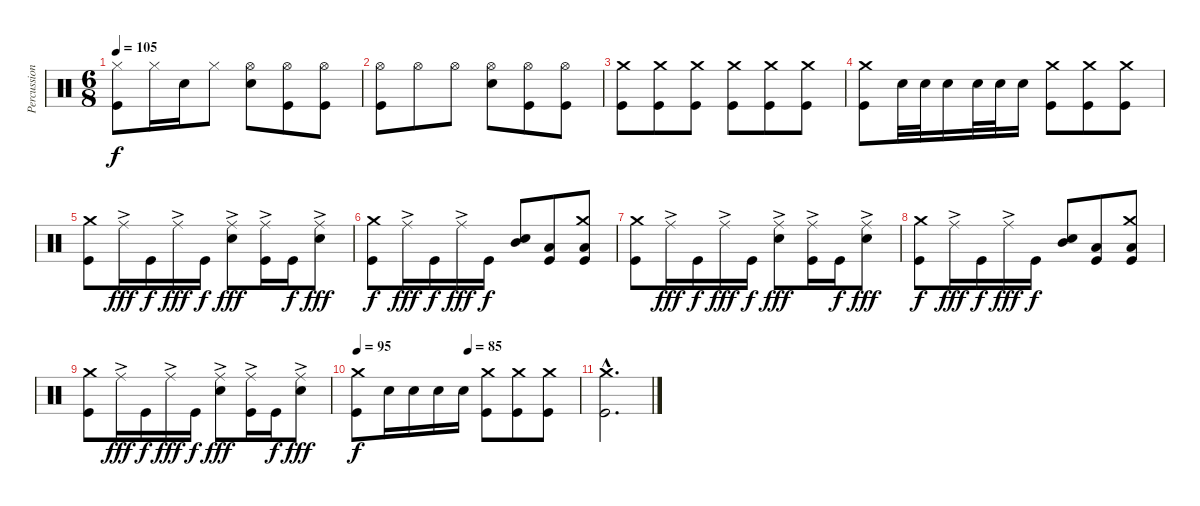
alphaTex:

\track ("Percussion" "Percussion") {instrument percussion}
\staff {score}
\articulation defaults
\ts (6 8)
\tempo 105
\clef neutral
\ks c
("Hi-Hat (closed)" "Kick (hit)").8{dy f} "Hi-Hat (closed)".16 "Electric Snare (hit)".16 "Hi-Hat (closed)".8 ("Hi-Hat (open)" "Electric Snare (hit)").8 ("Hi-Hat (open)" "Kick (hit)").8 ("Hi-Hat (open)" "Kick (hit)").8 |
("Hi-Hat (open)" "Kick (hit)").8 "Hi-Hat (open)".8 "Hi-Hat (open)".8 ("Hi-Hat (open)" "Electric Snare (hit)").8 ("Hi-Hat (open)" "Kick (hit)").8 ("Hi-Hat (open)" "Kick (hit)").8 |
("Crash medium (hit)" "Kick (hit)").8 ("Crash medium (hit)" "Kick (hit)").8 ("Crash medium (hit)" "Kick (hit)").8 ("Crash medium (hit)" "Kick (hit)").8 ("Crash medium (hit)" "Kick (hit)").8 ("Crash medium (hit)" "Kick (hit)").8 |
("Crash medium (hit)" "Kick (hit)").8 "Electric Snare (hit)".32 "Electric Snare (hit)".32 "Electric Snare (hit)".16 "Electric Snare (hit)".32 "Electric Snare (hit)".32 "Electric Snare (hit)".16 ("Crash medium (hit)" "Kick (hit)").8 ("Crash medium (hit)" "Kick (hit)").8 ("Crash medium (hit)" "Kick (hit)").8 |
("Crash medium (hit)" "Kick (hit)").8 "Ride (middle)"{ac}.16{dy fff} "Kick (hit)".16{dy f} "Ride (middle)"{ac}.16{dy fff} "Kick (hit)".16{dy f} ("Ride (middle)"{ac} "Electric Snare (hit)").8{dy fff} ("Ride (middle)"{ac} "Kick (hit)").16 "Kick (hit)".16{dy f} ("Ride (middle)"{ac} "Electric Snare (hit)").8{dy fff} |
("Crash medium (hit)" "Kick (hit)").8{dy f} "Ride (middle)"{ac}.16{dy fff} "Kick (hit)".16{dy f} "Ride (middle)"{ac}.16{dy fff} "Kick (hit)".16{dy f} ("Electric Snare (hit)" "Mid Tom (hit)").8 ("Low Tom (hit)" "Kick (hit)").8 ("Crash medium (hit)" "Low Floor Tom (hit)" "Kick (hit)").8 |
("Crash medium (hit)" "Kick (hit)").8 "Ride (middle)"{ac}.16{dy fff} "Kick (hit)".16{dy f} "Ride (middle)"{ac}.16{dy fff} "Kick (hit)".16{dy f} ("Ride (middle)"{ac} "Electric Snare (hit)").8{dy fff} ("Ride (middle)"{ac} "Kick (hit)").16 "Kick (hit)".16{dy f} ("Ride (middle)"{ac} "Electric Snare (hit)").8{dy fff} |
("Crash medium (hit)" "Kick (hit)").8{dy f} "Ride (middle)"{ac}.16{dy fff} "Kick (hit)".16{dy f} "Ride (middle)"{ac}.16{dy fff} "Kick (hit)".16{dy f} ("Electric Snare (hit)" "Mid Tom (hit)").8 ("Low Tom (hit)" "Kick (hit)").8 ("Crash medium (hit)" "Low Floor Tom (hit)" "Kick (hit)").8 |
("Crash medium (hit)" "Kick (hit)").8 "Ride (middle)"{ac}.16{dy fff} "Kick (hit)".16{dy f} "Ride (middle)"{ac}.16{dy fff} "Kick (hit)".16{dy f} ("Ride (middle)"{ac} "Electric Snare (hit)").8{dy fff} ("Ride (middle)"{ac} "Kick (hit)").16 "Kick (hit)".16{dy f} ("Ride (middle)"{ac} "Electric Snare (hit)").8{dy fff} |
\tempo 95
\tempo (85 0.5)
("Crash medium (hit)" "Kick (hit)").8{dy f} "Electric Snare (hit)".16 "Electric Snare (hit)".16 "Electric Snare (hit)".16 "Electric Snare (hit)".16 ("Crash medium (hit)" "Kick (hit)").8 ("Crash medium (hit)" "Kick (hit)").8 ("Crash medium (hit)" "Kick (hit)").8 |
("Crash medium (hit)"{hac} "Kick (hit)"{hac}).2{d}
